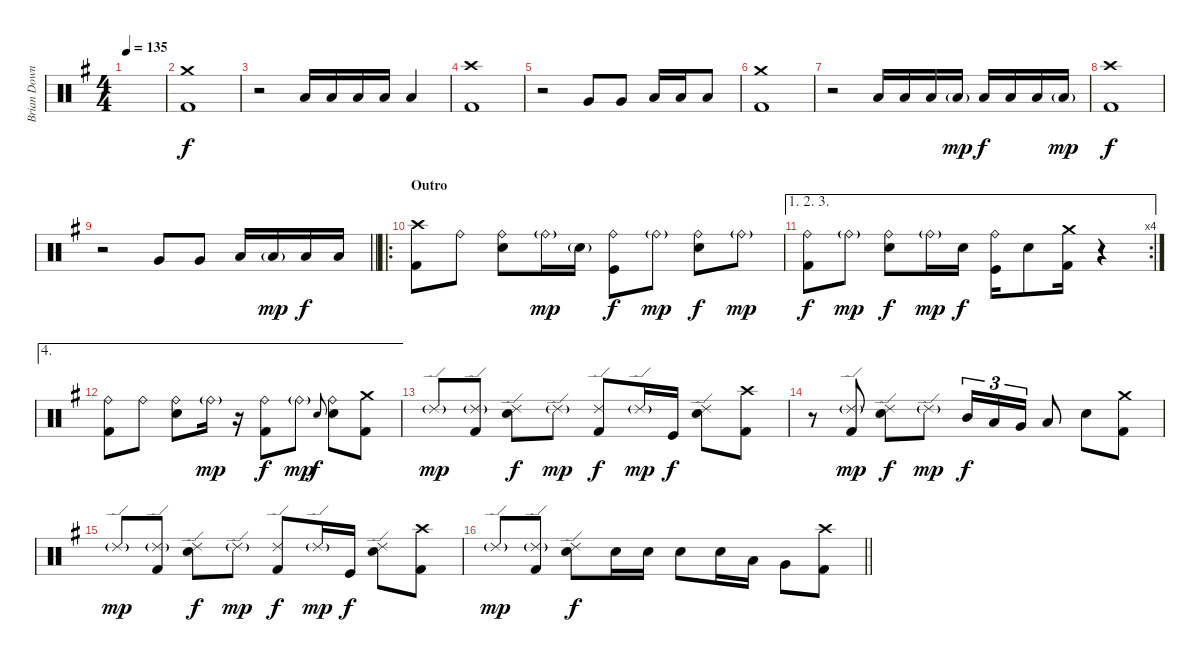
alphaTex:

\track ("Brian Downey" "Brian Down") {instrument percussion}
\staff {score}
\articulation defaults
\ts (4 4)
\tempo 135
\clef neutral
\ks eminor
|
("Crash medium (hit)" "Kick (hit) 2").1 |
r.2 "Low Floor Tom (hit)".16 "Low Floor Tom (hit)".16 "Low Floor Tom (hit)".16 "Low Floor Tom (hit)".16 "Low Floor Tom (hit)".4 |
("Crash high (hit)" "Kick (hit) 2").1 |
r.2 "Very Low Tom (hit)".8 "Very Low Tom (hit)".8 "Low Floor Tom (hit)".16 "Low Floor Tom (hit)".16 "Low Floor Tom (hit)".8 |
("Crash medium (hit)" "Kick (hit) 2").1 |
r.2 "Low Floor Tom (hit)".16 "Low Floor Tom (hit)".16 "Low Floor Tom (hit)".16 "Low Floor Tom (hit)"{g}.16{dy mp} "Low Floor Tom (hit)".16{dy f} "Low Floor Tom (hit)".16 "Low Floor Tom (hit)".16 "Low Floor Tom (hit)"{g}.16{dy mp} |
("Crash high (hit)" "Kick (hit) 2").1{dy f} |
\barLineRight lightlight
r.2 "Very Low Tom (hit)".8 "Very Low Tom (hit)".8 "Low Floor Tom (hit)".16 "Low Floor Tom (hit)"{g}.16{dy mp} "Low Floor Tom (hit)".16{dy f} "Low Floor Tom (hit)".16 |
\ro
\section ("" "Outro")
("Crash high (hit)" "Kick (hit) 2").8 "Ride (bell)".8 ("Ride (bell)" "Electric Snare (hit)").8 "Ride (bell)"{g}.16{dy mp} "Electric Snare (hit)"{g}.16 ("Ride (bell)" "Kick (hit)").8{dy f} "Ride (bell)"{g}.8{dy mp} ("Ride (bell)" "Electric Snare (hit)").8{dy f} "Ride (bell)"{g}.8{dy mp} |
\ae (1 2 3)
\rc 4
("Ride (bell)" "Kick (hit) 2").8{dy f} "Ride (bell)"{g}.8{dy mp} ("Ride (bell)" "Electric Snare (hit)").8{dy f} "Ride (bell)"{g}.16{dy mp} "Electric Snare (hit)".16{dy f} ("Ride (bell)" "Kick (hit)").16 "Electric Snare (hit)".8 ("Crash medium (hit)" "Kick (hit) 2").16 r.4 |
\ae 4
("Ride (bell)" "Kick (hit) 2").8 "Ride (bell)".8 ("Ride (bell)" "Electric Snare (hit)").8 "Ride (bell)"{g}.16{dy mp} r.16 ("Ride (bell)" "Kick (hit) 2").8{dy f} "Ride (bell)"{g}.8{dy mp} "Electric Snare (hit)".8{gr onbeat dy f} ("Ride (bell)" "Electric Snare (hit)").8 ("Crash medium (hit)" "Kick (hit) 2").8 |
"Ride (edge) 2"{g}.8{dy mp} ("Ride (edge) 2"{g} "Kick (hit) 2").8 ("Ride (edge) 2" "Electric Snare (hit)").8{dy f} "Ride (edge) 2"{g}.8{dy mp} ("Ride (edge) 2" "Kick (hit) 2").8{dy f} "Ride (edge) 2"{g}.16{dy mp} "Kick (hit)".16{dy f} ("Ride (edge) 2" "Electric Snare (hit)").8 ("Crash high (hit)" "Kick (hit) 2").8 |
r.8 ("Ride (edge) 2"{g} "Kick (hit) 2").8{dy mp} ("Ride (edge) 2" "Electric Snare (hit)").8{dy f} "Ride (edge) 2"{g}.8{dy mp} "Mid Tom (hit)".16{tu (3 2) dy f} "Low Tom (hit)".16{tu (3 2)} "Very Low Tom (hit)".16{tu (3 2)} "Low Floor Tom (hit)".8 "Electric Snare (hit)".8 ("Crash medium (hit)" "Kick (hit) 2").8 |
"Ride (edge) 2"{g}.8{dy mp} ("Ride (edge) 2"{g} "Kick (hit) 2").8 ("Ride (edge) 2" "Electric Snare (hit)").8{dy f} "Ride (edge) 2"{g}.8{dy mp} ("Ride (edge) 2" "Kick (hit) 2").8{dy f} "Ride (edge) 2"{g}.16{dy mp} "Kick (hit)".16{dy f} ("Ride (edge) 2" "Electric Snare (hit)").8 ("Crash high (hit)" "Kick (hit) 2").8 |
\barLineRight lightlight "Ride (edge) 2"{g}.8{dy mp}
("Ride (edge) 2"{g} "Kick (hit) 2").8 ("Ride (edge) 2" "Electric Snare (hit)").8{dy f} "Electric Snare (hit)".16 "Electric Snare (hit)".16 "Electric Snare (hit)".8 "Electric Snare (hit)".16 "Low Tom (hit)".16 "Very Low Tom (hit)".8 ("Crash high (hit)" "Kick (hit) 2").8
